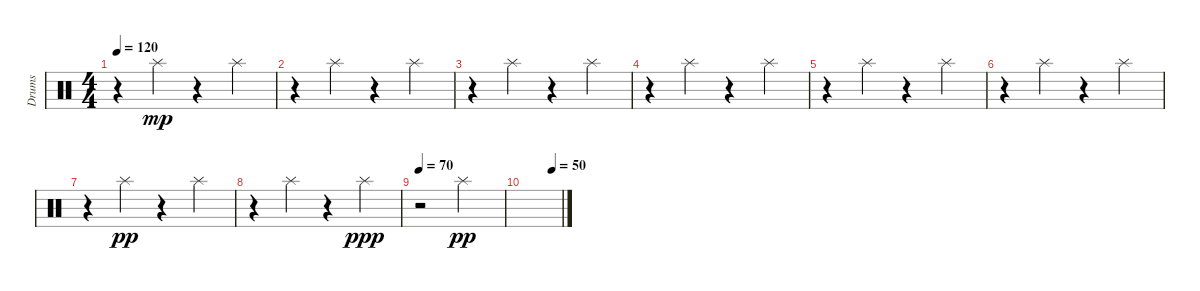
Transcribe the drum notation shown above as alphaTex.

\track ("Drums" "Drums") {instrument percussion}
\staff {score}
\articulation defaults
\ts (4 4)
\tempo 120
\clef neutral
\ks c
r.4{dy p} "Splash (hit)".4{dy mp} r.4 "Splash (hit)".4 |
r.4 "Splash (hit)".4 r.4 "Splash (hit)".4 |
r.4 "Splash (hit)".4 r.4 "Splash (hit)".4 |
r.4 "Splash (hit)".4 r.4 "Splash (hit)".4 |
r.4 "Splash (hit)".4 r.4 "Splash (hit)".4 |
r.4 "Splash (hit)".4 r.4 "Splash (hit)".4 |
r.4 "Splash (hit)".4{dy pp} r.4 "Splash (hit)".4 |
r.4 "Splash (hit)".4 r.4 "Splash (hit)".4{dy ppp} |
\tempo 70
r.2 "Splash (hit)".2{dy pp} |
\tempo (50 0.75)
